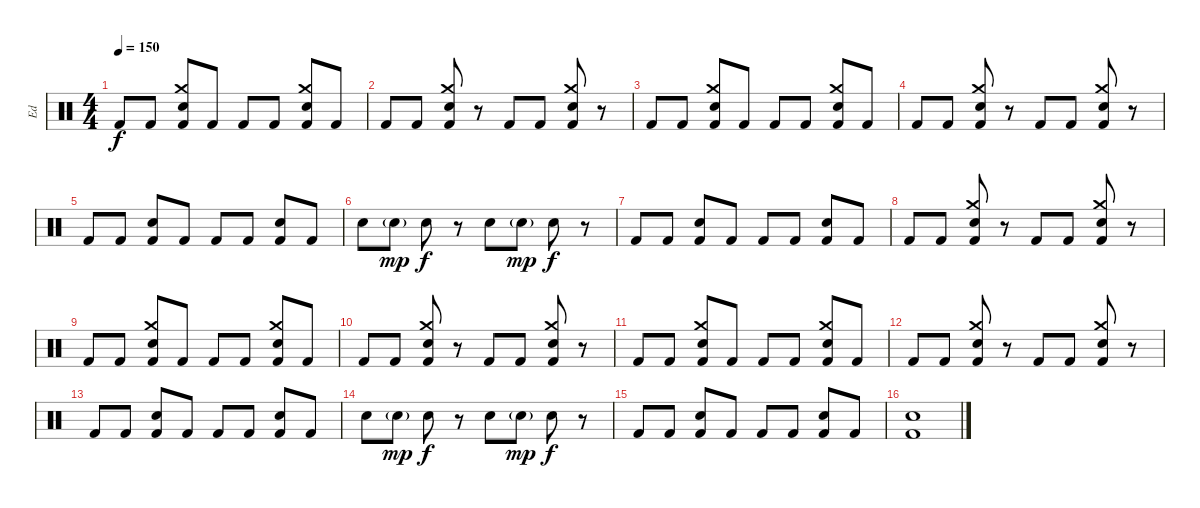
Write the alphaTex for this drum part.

\track ("Ed" "Ed") {instrument percussion}
\staff {score}
\articulation defaults
\ts (4 4)
\tempo 150
\clef neutral
\ks c "Kick (hit) 2".8{dy f} "Kick (hit) 2".8
("Crash medium (hit)" "Electric Snare (hit)" "Kick (hit) 2").8 "Kick (hit) 2".8 "Kick (hit) 2".8 "Kick (hit) 2".8 ("Crash medium (hit)" "Electric Snare (hit)" "Kick (hit) 2").8 "Kick (hit) 2".8 |
"Kick (hit) 2".8 "Kick (hit) 2".8 ("Crash medium (hit)" "Electric Snare (hit)" "Kick (hit) 2").8 r.8 "Kick (hit) 2".8 "Kick (hit) 2".8 ("Crash medium (hit)" "Electric Snare (hit)" "Kick (hit) 2").8 r.8 |
"Kick (hit) 2".8 "Kick (hit) 2".8 ("Crash medium (hit)" "Electric Snare (hit)" "Kick (hit) 2").8 "Kick (hit) 2".8 "Kick (hit) 2".8 "Kick (hit) 2".8 ("Crash medium (hit)" "Electric Snare (hit)" "Kick (hit) 2").8 "Kick (hit) 2".8 |
"Kick (hit) 2".8 "Kick (hit) 2".8 ("Crash medium (hit)" "Electric Snare (hit)" "Kick (hit) 2").8 r.8 "Kick (hit) 2".8 "Kick (hit) 2".8 ("Crash medium (hit)" "Electric Snare (hit)" "Kick (hit) 2").8 r.8 |
"Kick (hit) 2".8 "Kick (hit) 2".8 ("Electric Snare (hit)" "Kick (hit) 2").8 "Kick (hit) 2".8 "Kick (hit) 2".8 "Kick (hit) 2".8 ("Electric Snare (hit)" "Kick (hit) 2").8 "Kick (hit) 2".8 |
"Electric Snare (hit)".8 "Electric Snare (hit)"{g}.8{dy mp} "Electric Snare (hit)".8{dy f} r.8 "Electric Snare (hit)".8 "Electric Snare (hit)"{g}.8{dy mp} "Electric Snare (hit)".8{dy f} r.8 |
"Kick (hit) 2".8 "Kick (hit) 2".8 ("Electric Snare (hit)" "Kick (hit) 2").8 "Kick (hit) 2".8 "Kick (hit) 2".8 "Kick (hit) 2".8 ("Electric Snare (hit)" "Kick (hit) 2").8 "Kick (hit) 2".8 |
"Kick (hit) 2".8 "Kick (hit) 2".8 ("Crash medium (hit)" "Electric Snare (hit)" "Kick (hit) 2").8 r.8 "Kick (hit) 2".8 "Kick (hit) 2".8 ("Crash medium (hit)" "Electric Snare (hit)" "Kick (hit) 2").8 r.8 |
"Kick (hit) 2".8 "Kick (hit) 2".8 ("Crash medium (hit)" "Electric Snare (hit)" "Kick (hit) 2").8 "Kick (hit) 2".8 "Kick (hit) 2".8 "Kick (hit) 2".8 ("Crash medium (hit)" "Electric Snare (hit)" "Kick (hit) 2").8 "Kick (hit) 2".8 |
"Kick (hit) 2".8 "Kick (hit) 2".8 ("Crash medium (hit)" "Electric Snare (hit)" "Kick (hit) 2").8 r.8 "Kick (hit) 2".8 "Kick (hit) 2".8 ("Crash medium (hit)" "Electric Snare (hit)" "Kick (hit) 2").8 r.8 |
"Kick (hit) 2".8 "Kick (hit) 2".8 ("Crash medium (hit)" "Electric Snare (hit)" "Kick (hit) 2").8 "Kick (hit) 2".8 "Kick (hit) 2".8 "Kick (hit) 2".8 ("Crash medium (hit)" "Electric Snare (hit)" "Kick (hit) 2").8 "Kick (hit) 2".8 |
"Kick (hit) 2".8 "Kick (hit) 2".8 ("Crash medium (hit)" "Electric Snare (hit)" "Kick (hit) 2").8 r.8 "Kick (hit) 2".8 "Kick (hit) 2".8 ("Crash medium (hit)" "Electric Snare (hit)" "Kick (hit) 2").8 r.8 |
"Kick (hit) 2".8 "Kick (hit) 2".8 ("Electric Snare (hit)" "Kick (hit) 2").8 "Kick (hit) 2".8 "Kick (hit) 2".8 "Kick (hit) 2".8 ("Electric Snare (hit)" "Kick (hit) 2").8 "Kick (hit) 2".8 |
"Electric Snare (hit)".8 "Electric Snare (hit)"{g}.8{dy mp} "Electric Snare (hit)".8{dy f} r.8 "Electric Snare (hit)".8 "Electric Snare (hit)"{g}.8{dy mp} "Electric Snare (hit)".8{dy f} r.8 |
"Kick (hit) 2".8 "Kick (hit) 2".8 ("Electric Snare (hit)" "Kick (hit) 2").8 "Kick (hit) 2".8 "Kick (hit) 2".8 "Kick (hit) 2".8 ("Electric Snare (hit)" "Kick (hit) 2").8 "Kick (hit) 2".8 |
("Electric Snare (hit)" "Kick (hit) 2").1
